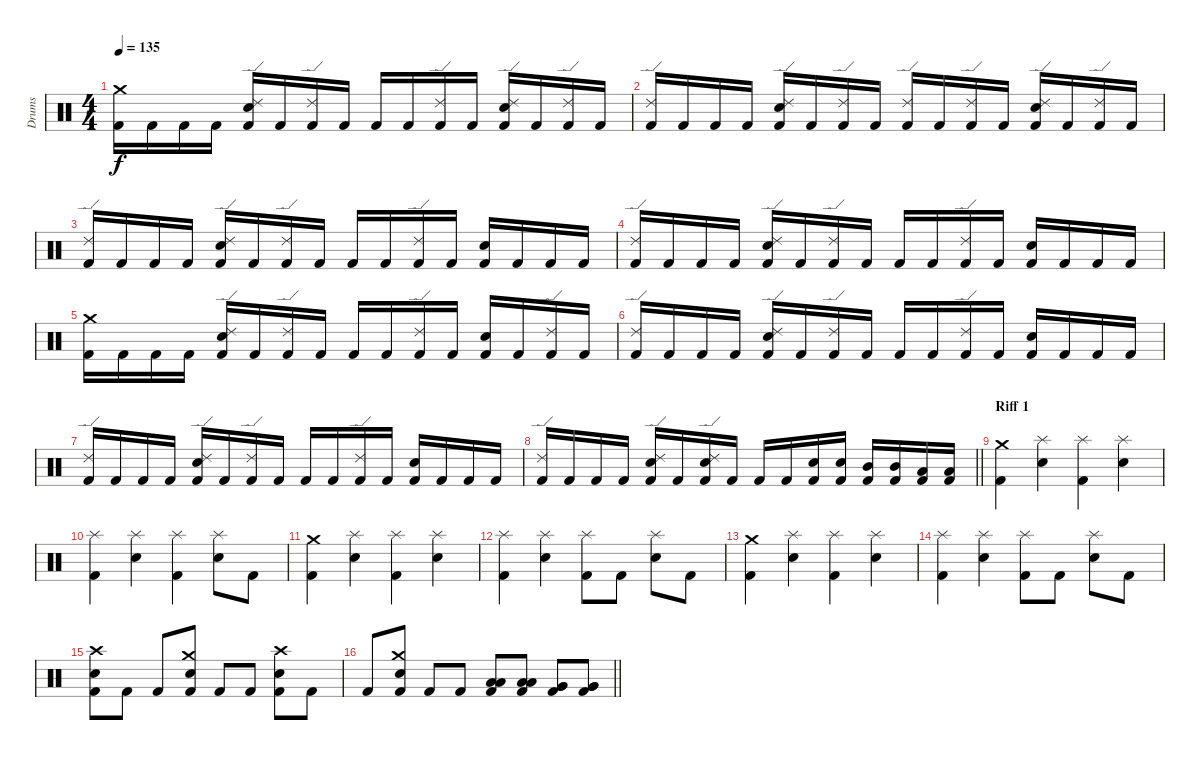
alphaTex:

\track ("Drums" "Drums") {instrument percussion}
\staff {score}
\articulation defaults
\ts (4 4)
\section ("" "")
\tempo 135
\clef neutral
\ks c
("Kick (hit) 2" "Crash medium (hit)").16{dy f} "Kick (hit) 2".16 "Kick (hit) 2".16 "Kick (hit) 2".16 ("Kick (hit) 2" "Snare (hit) 2" "Ride (edge) 2").16 "Kick (hit) 2".16 ("Kick (hit) 2" "Ride (edge) 2").16 "Kick (hit) 2".16 "Kick (hit) 2".16 "Kick (hit) 2".16 ("Kick (hit) 2" "Ride (edge) 2").16 "Kick (hit) 2".16 ("Kick (hit) 2" "Snare (hit) 2" "Ride (edge) 2").16 "Kick (hit) 2".16 ("Kick (hit) 2" "Ride (edge) 2").16 "Kick (hit) 2".16 |
("Kick (hit) 2" "Ride (edge) 2").16 "Kick (hit) 2".16 "Kick (hit) 2".16 "Kick (hit) 2".16 ("Kick (hit) 2" "Snare (hit) 2" "Ride (edge) 2").16 "Kick (hit) 2".16 ("Kick (hit) 2" "Ride (edge) 2").16 "Kick (hit) 2".16 ("Kick (hit) 2" "Ride (edge) 2").16 "Kick (hit) 2".16 ("Kick (hit) 2" "Ride (edge) 2").16 "Kick (hit) 2".16 ("Kick (hit) 2" "Snare (hit) 2" "Ride (edge) 2").16 "Kick (hit) 2".16 ("Kick (hit) 2" "Ride (edge) 2").16 "Kick (hit) 2".16 |
("Kick (hit) 2" "Ride (edge) 2").16 "Kick (hit) 2".16 "Kick (hit) 2".16 "Kick (hit) 2".16 ("Kick (hit) 2" "Snare (hit) 2" "Ride (edge) 2").16 "Kick (hit) 2".16 ("Kick (hit) 2" "Ride (edge) 2").16 "Kick (hit) 2".16 "Kick (hit) 2".16 "Kick (hit) 2".16 ("Kick (hit) 2" "Ride (edge) 2").16 "Kick (hit) 2".16 ("Kick (hit) 2" "Snare (hit) 2").16 "Kick (hit) 2".16 "Kick (hit) 2".16 "Kick (hit) 2".16 |
("Kick (hit) 2" "Ride (edge) 2").16 "Kick (hit) 2".16 "Kick (hit) 2".16 "Kick (hit) 2".16 ("Kick (hit) 2" "Snare (hit) 2" "Ride (edge) 2").16 "Kick (hit) 2".16 ("Kick (hit) 2" "Ride (edge) 2").16 "Kick (hit) 2".16 "Kick (hit) 2".16 "Kick (hit) 2".16 ("Kick (hit) 2" "Ride (edge) 2").16 "Kick (hit) 2".16 ("Kick (hit) 2" "Snare (hit) 2").16 "Kick (hit) 2".16 "Kick (hit) 2".16 "Kick (hit) 2".16 |
("Kick (hit) 2" "Crash medium (hit)").16 "Kick (hit) 2".16 "Kick (hit) 2".16 "Kick (hit) 2".16 ("Kick (hit) 2" "Snare (hit) 2" "Ride (edge) 2").16 "Kick (hit) 2".16 ("Kick (hit) 2" "Ride (edge) 2").16 "Kick (hit) 2".16 "Kick (hit) 2".16 "Kick (hit) 2".16 ("Kick (hit) 2" "Ride (edge) 2").16 "Kick (hit) 2".16 ("Kick (hit) 2" "Snare (hit) 2").16 "Kick (hit) 2".16 ("Kick (hit) 2" "Ride (edge) 2").16 "Kick (hit) 2".16 |
("Kick (hit) 2" "Ride (edge) 2").16 "Kick (hit) 2".16 "Kick (hit) 2".16 "Kick (hit) 2".16 ("Kick (hit) 2" "Snare (hit) 2" "Ride (edge) 2").16 "Kick (hit) 2".16 ("Kick (hit) 2" "Ride (edge) 2").16 "Kick (hit) 2".16 "Kick (hit) 2".16 "Kick (hit) 2".16 ("Kick (hit) 2" "Ride (edge) 2").16 "Kick (hit) 2".16 ("Kick (hit) 2" "Snare (hit) 2").16 "Kick (hit) 2".16 "Kick (hit) 2".16 "Kick (hit) 2".16 |
("Kick (hit) 2" "Ride (edge) 2").16 "Kick (hit) 2".16 "Kick (hit) 2".16 "Kick (hit) 2".16 ("Kick (hit) 2" "Snare (hit) 2" "Ride (edge) 2").16 "Kick (hit) 2".16 ("Kick (hit) 2" "Ride (edge) 2").16 "Kick (hit) 2".16 "Kick (hit) 2".16 "Kick (hit) 2".16 ("Kick (hit) 2" "Ride (edge) 2").16 "Kick (hit) 2".16 ("Kick (hit) 2" "Snare (hit) 2").16 "Kick (hit) 2".16 "Kick (hit) 2".16 "Kick (hit) 2".16 |
\barLineRight lightlight
("Kick (hit) 2" "Ride (edge) 2").16 "Kick (hit) 2".16 "Kick (hit) 2".16 "Kick (hit) 2".16 ("Kick (hit) 2" "Snare (hit) 2" "Ride (edge) 2").16 "Kick (hit) 2".16 ("Kick (hit) 2" "Snare (hit) 2" "Ride (edge) 2").16 "Kick (hit) 2".16 "Kick (hit) 2".16 "Kick (hit) 2".16 ("Kick (hit) 2" "Snare (hit) 2").16 ("Kick (hit) 2" "Snare (hit) 2").16 ("Kick (hit) 2" "Mid Tom (hit)").16 ("Kick (hit) 2" "Mid Tom (hit)").16 ("Kick (hit) 2" "Low Tom (hit)").16 ("Kick (hit) 2" "Low Tom (hit)").16 |
\section ("" "Riff 1")
("Kick (hit) 2" "Crash medium (hit)").4 ("Snare (hit) 2" "Splash (hit)").4 ("Kick (hit) 2" "Splash (hit)").4 ("Snare (hit) 2" "Splash (hit)").4 |
("Kick (hit) 2" "Splash (hit)").4 ("Snare (hit) 2" "Splash (hit)").4 ("Kick (hit) 2" "Splash (hit)").4 ("Snare (hit) 2" "Splash (hit)").8 "Kick (hit) 2".8 |
("Kick (hit) 2" "Crash medium (hit)").4 ("Snare (hit) 2" "Splash (hit)").4 ("Kick (hit) 2" "Splash (hit)").4 ("Snare (hit) 2" "Splash (hit)").4 |
("Kick (hit) 2" "Splash (hit)").4 ("Snare (hit) 2" "Splash (hit)").4 ("Kick (hit) 2" "Splash (hit)").8 "Kick (hit) 2".8 ("Snare (hit) 2" "Splash (hit)").8 "Kick (hit) 2".8 |
("Kick (hit) 2" "Crash medium (hit)").4 ("Snare (hit) 2" "Splash (hit)").4 ("Kick (hit) 2" "Splash (hit)").4 ("Snare (hit) 2" "Splash (hit)").4 |
("Kick (hit) 2" "Splash (hit)").4 ("Snare (hit) 2" "Splash (hit)").4 ("Kick (hit) 2" "Splash (hit)").8 "Kick (hit) 2".8 ("Snare (hit) 2" "Splash (hit)").8 "Kick (hit) 2".8 |
("Kick (hit) 2" "Snare (hit) 2" "Crash high (hit)").8 "Kick (hit) 2".8 "Kick (hit) 2".8 ("Kick (hit) 2" "Snare (hit) 2" "Crash medium (hit)").8 "Kick (hit) 2".8 "Kick (hit) 2".8 ("Kick (hit) 2" "Snare (hit) 2" "Crash high (hit)").8 "Kick (hit) 2".8 |
\barLineRight lightlight "Kick (hit) 2".8
("Kick (hit) 2" "Snare (hit) 2" "Crash medium (hit)").8 "Kick (hit) 2".8 "Kick (hit) 2".8 ("Kick (hit) 2" "Low Tom (hit)" "Low Tom (hit)").8 ("Kick (hit) 2" "Low Tom (hit)" "Low Tom (hit)").8 ("Kick (hit) 2" "Very Low Tom (hit)" "Very Low Tom (hit)").8 ("Kick (hit) 2" "Very Low Tom (hit)" "Very Low Tom (hit)").8
